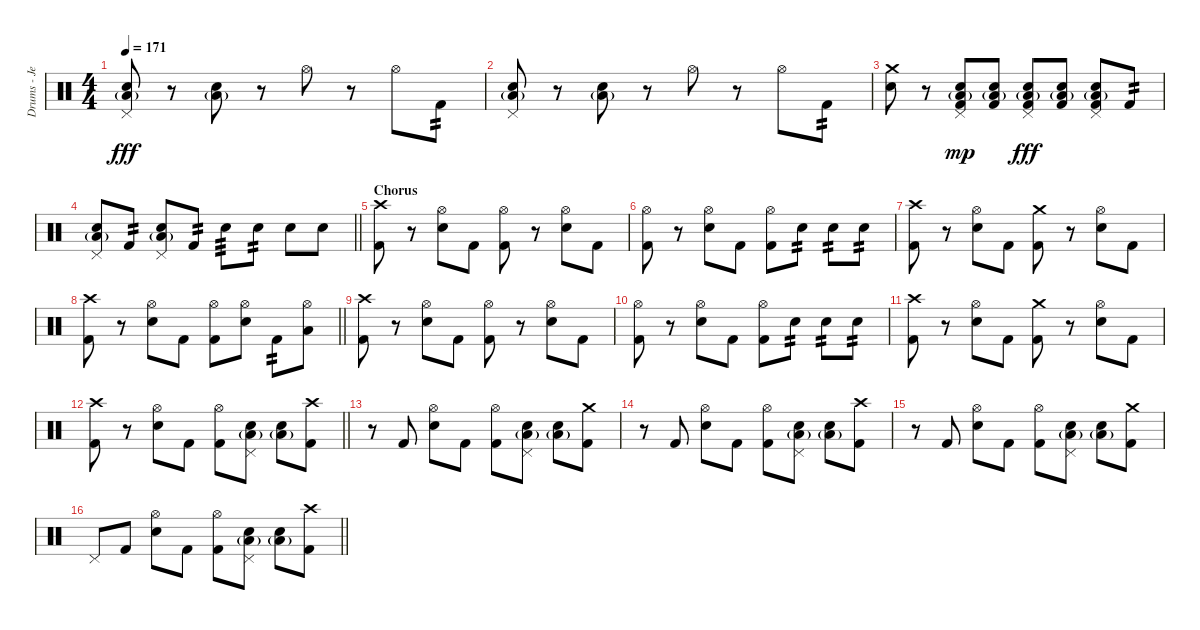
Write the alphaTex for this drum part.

\track ("Drums - Jerinx" "Drums - Je") {instrument percussion}
\staff {score}
\articulation defaults
\ts (4 4)
\tempo 171
\clef neutral
\ks c
("Pedal Hi-Hat (hit)" "Snare (hit) 2" "Low Floor Tom (hit)"{g}).8{dy fff} r.8 ("Snare (hit) 2" "Low Floor Tom (hit)"{g}).8 r.8 "Hi-Hat (open)".8 r.8 "Hi-Hat (open)".8 "Kick (hit) 2".8{tp 2} |
("Pedal Hi-Hat (hit)" "Snare (hit) 2" "Low Floor Tom (hit)"{g}).8 r.8 ("Snare (hit) 2" "Low Floor Tom (hit)"{g}).8 r.8 "Hi-Hat (open)".8 r.8 "Hi-Hat (open)".8 "Kick (hit) 2".8{tp 2} |
("Snare (hit) 2" "Crash medium (hit)").8 r.8 ("Pedal Hi-Hat (hit)" "Snare (hit) 2" "Kick (hit) 2" "Low Floor Tom (hit)"{g}).8{dy mp} ("Snare (hit) 2" "Kick (hit) 2" "Low Floor Tom (hit)"{g}).8 ("Pedal Hi-Hat (hit)" "Snare (hit) 2" "Kick (hit) 2" "Low Floor Tom (hit)"{g}).8{dy fff} ("Snare (hit) 2" "Kick (hit) 2" "Low Floor Tom (hit)"{g}).8 ("Pedal Hi-Hat (hit)" "Snare (hit) 2" "Kick (hit) 2" "Low Floor Tom (hit)"{g}).8 "Kick (hit) 2".8{tp 2} |
\barLineRight lightlight
("Pedal Hi-Hat (hit)" "Snare (hit) 2" "Low Floor Tom (hit)"{g}).8 "Kick (hit) 2".8{tp 2} ("Pedal Hi-Hat (hit)" "Snare (hit) 2" "Low Floor Tom (hit)"{g}).8 "Kick (hit) 2".8{tp 2} "Snare (hit) 2".8{tp 3} "Snare (hit) 2".8{tp 2} "Snare (hit) 2".8 "Snare (hit) 2".8 |
\section ("" "Chorus")
("Kick (hit) 2" "Crash high (hit)").8 r.8 ("Hi-Hat (open)" "Snare (hit) 2").8 "Kick (hit) 2".8 ("Hi-Hat (open)" "Kick (hit) 2").8 r.8 ("Hi-Hat (open)" "Snare (hit) 2").8 "Kick (hit) 2".8 |
("Hi-Hat (open)" "Kick (hit) 2").8 r.8 ("Hi-Hat (open)" "Snare (hit) 2").8 "Kick (hit) 2".8 ("Hi-Hat (open)" "Kick (hit) 2").8 "Snare (hit) 2".8{tp 2} "Snare (hit) 2".8{tp 2} "Snare (hit) 2".8{tp 2} |
("Kick (hit) 2" "Crash high (hit)").8 r.8 ("Hi-Hat (open)" "Snare (hit) 2").8 "Kick (hit) 2".8 ("Kick (hit) 2" "Crash medium (hit)").8 r.8 ("Hi-Hat (open)" "Snare (hit) 2").8 "Kick (hit) 2".8 |
\barLineRight lightlight
("Kick (hit) 2" "Crash high (hit)").8 r.8 ("Hi-Hat (open)" "Snare (hit) 2").8 "Kick (hit) 2".8 ("Hi-Hat (open)" "Kick (hit) 2").8 ("Hi-Hat (open)" "Snare (hit) 2").8 "Kick (hit) 2".8{tp 2} ("Hi-Hat (open)" "Low Tom (hit)").8 |
("Kick (hit) 2" "Crash high (hit)").8 r.8 ("Hi-Hat (open)" "Snare (hit) 2").8 "Kick (hit) 2".8 ("Hi-Hat (open)" "Kick (hit) 2").8 r.8 ("Hi-Hat (open)" "Snare (hit) 2").8 "Kick (hit) 2".8 |
("Hi-Hat (open)" "Kick (hit) 2").8 r.8 ("Hi-Hat (open)" "Snare (hit) 2").8 "Kick (hit) 2".8 ("Hi-Hat (open)" "Kick (hit) 2").8 "Snare (hit) 2".8{tp 2} "Snare (hit) 2".8{tp 2} "Snare (hit) 2".8{tp 2} |
("Kick (hit) 2" "Crash high (hit)").8 r.8 ("Hi-Hat (open)" "Snare (hit) 2").8 "Kick (hit) 2".8 ("Kick (hit) 2" "Crash medium (hit)").8 r.8 ("Hi-Hat (open)" "Snare (hit) 2").8 "Kick (hit) 2".8 |
\barLineRight lightlight
("Kick (hit) 2" "Crash high (hit)").8 r.8 ("Hi-Hat (open)" "Snare (hit) 2").8 "Kick (hit) 2".8 ("Hi-Hat (open)" "Kick (hit) 2").8 ("Pedal Hi-Hat (hit)" "Snare (hit) 2" "Low Floor Tom (hit)"{g}).8 ("Snare (hit) 2" "Low Floor Tom (hit)"{g}).8 ("Kick (hit) 2" "Crash high (hit)").8 |
r.8 "Kick (hit) 2".8 ("Hi-Hat (open)" "Snare (hit) 2").8 "Kick (hit) 2".8 ("Hi-Hat (open)" "Kick (hit) 2").8 ("Pedal Hi-Hat (hit)" "Snare (hit) 2" "Low Floor Tom (hit)"{g}).8 ("Snare (hit) 2" "Low Floor Tom (hit)"{g}).8 ("Kick (hit) 2" "Crash medium (hit)").8 |
r.8 "Kick (hit) 2".8 ("Hi-Hat (open)" "Snare (hit) 2").8 "Kick (hit) 2".8 ("Hi-Hat (open)" "Kick (hit) 2").8 ("Pedal Hi-Hat (hit)" "Snare (hit) 2" "Low Floor Tom (hit)"{g}).8 ("Snare (hit) 2" "Low Floor Tom (hit)"{g}).8 ("Kick (hit) 2" "Crash high (hit)").8 |
r.8 "Kick (hit) 2".8 ("Hi-Hat (open)" "Snare (hit) 2").8 "Kick (hit) 2".8 ("Hi-Hat (open)" "Kick (hit) 2").8 ("Pedal Hi-Hat (hit)" "Snare (hit) 2" "Low Floor Tom (hit)"{g}).8 ("Snare (hit) 2" "Low Floor Tom (hit)"{g}).8 ("Kick (hit) 2" "Crash medium (hit)").8 |
\barLineRight lightlight "Pedal Hi-Hat (hit)".8 "Kick (hit) 2".8
("Hi-Hat (open)" "Snare (hit) 2").8 "Kick (hit) 2".8 ("Hi-Hat (open)" "Kick (hit) 2").8 ("Pedal Hi-Hat (hit)" "Snare (hit) 2" "Low Floor Tom (hit)"{g}).8 ("Snare (hit) 2" "Low Floor Tom (hit)"{g}).8 ("Kick (hit) 2" "Crash high (hit)").8
